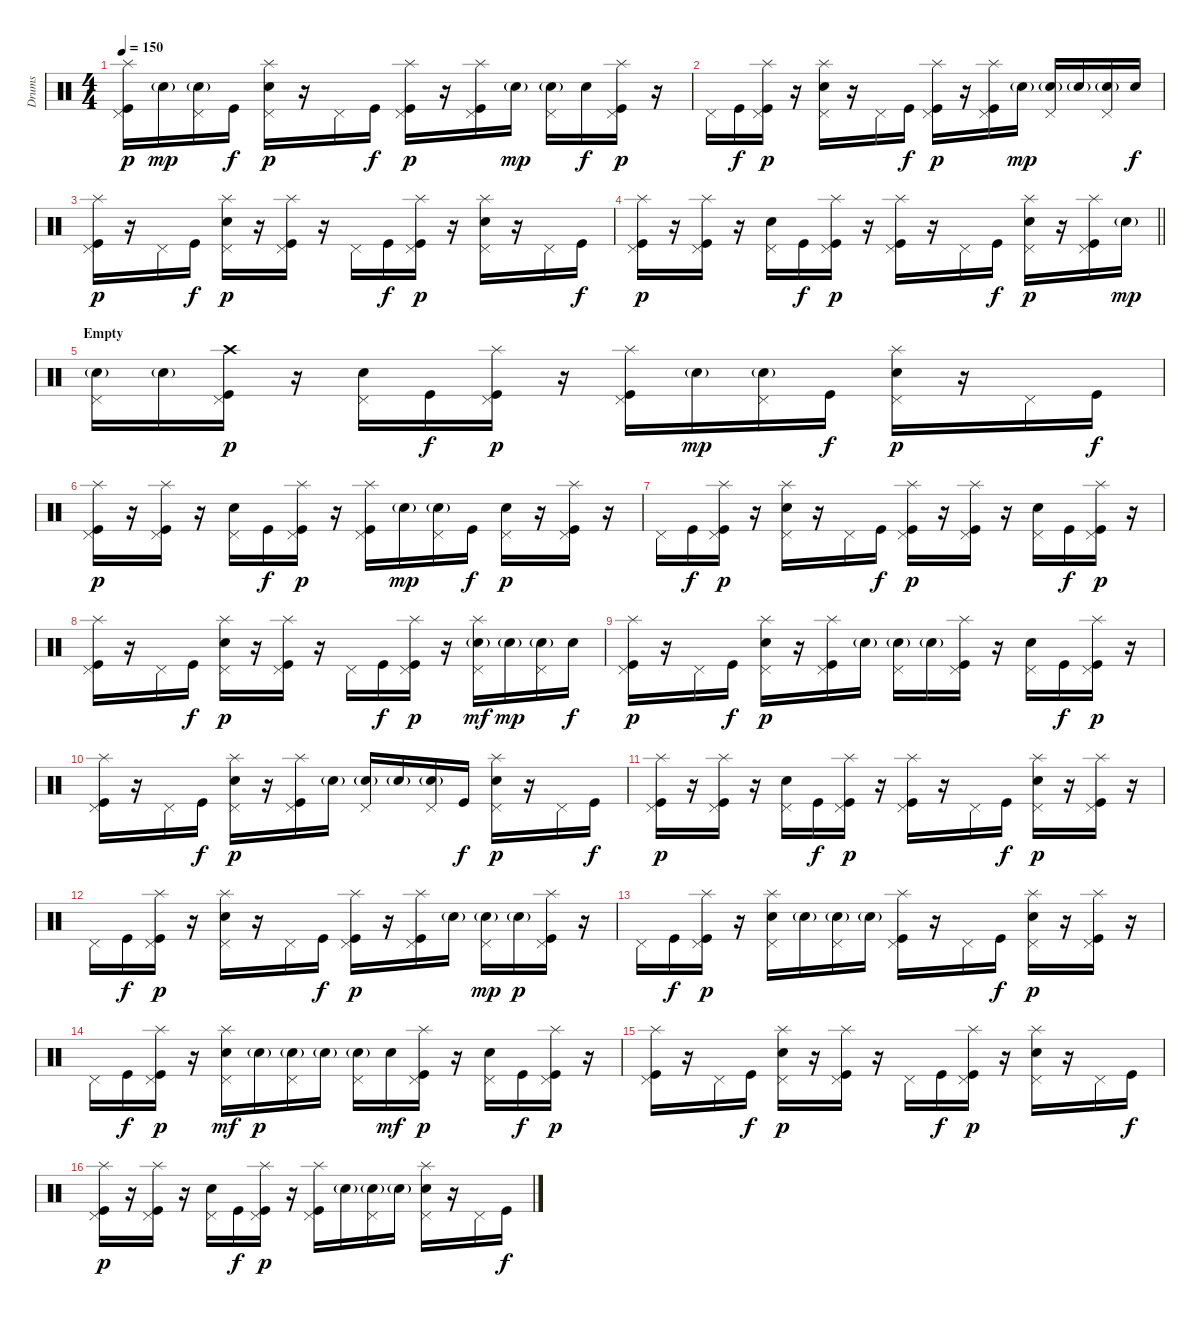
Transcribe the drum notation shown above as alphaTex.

\track ("Drums" "Drums") {instrument percussion}
\staff {score}
\articulation defaults
\ts (4 4)
\tempo 150
\clef neutral
\ks c
("Splash (hit)" "Pedal Hi-Hat (hit)" "Kick (hit)").16{dy p} "Electric Snare (hit)"{g}.16{dy mp} ("Pedal Hi-Hat (hit)" "Electric Snare (hit)"{g}).16 "Kick (hit)".16{dy f} ("Splash (hit)" "Pedal Hi-Hat (hit)" "Electric Snare (hit)").16{dy p} r.16 "Pedal Hi-Hat (hit)".16 "Kick (hit)".16{dy f} ("Splash (hit)" "Pedal Hi-Hat (hit)" "Kick (hit)").16{dy p} r.16 ("Splash (hit)" "Pedal Hi-Hat (hit)" "Kick (hit)").16 "Electric Snare (hit)"{g}.16{dy mp} ("Pedal Hi-Hat (hit)" "Electric Snare (hit)"{g}).16 "Electric Snare (hit)".16{dy f} ("Splash (hit)" "Pedal Hi-Hat (hit)" "Kick (hit)").16{dy p} r.16 |
"Pedal Hi-Hat (hit)".16 "Kick (hit)".16{dy f} ("Splash (hit)" "Pedal Hi-Hat (hit)" "Kick (hit)").16{dy p} r.16 ("Splash (hit)" "Pedal Hi-Hat (hit)" "Electric Snare (hit)").16 r.16 "Pedal Hi-Hat (hit)".16 "Kick (hit)".16{dy f} ("Splash (hit)" "Pedal Hi-Hat (hit)" "Kick (hit)").16{dy p} r.16 ("Splash (hit)" "Pedal Hi-Hat (hit)" "Kick (hit)").16 "Electric Snare (hit)"{g}.16{dy mp} ("Pedal Hi-Hat (hit)" "Electric Snare (hit)"{g}).16 "Electric Snare (hit)"{g}.16 ("Pedal Hi-Hat (hit)" "Electric Snare (hit)"{g}).16 "Electric Snare (hit)".16{dy f} |
("Splash (hit)" "Pedal Hi-Hat (hit)" "Kick (hit)").16{dy p} r.16 "Pedal Hi-Hat (hit)".16 "Kick (hit)".16{dy f} ("Splash (hit)" "Pedal Hi-Hat (hit)" "Electric Snare (hit)").16{dy p} r.16 ("Splash (hit)" "Pedal Hi-Hat (hit)" "Kick (hit)").16 r.16 "Pedal Hi-Hat (hit)".16 "Kick (hit)".16{dy f} ("Splash (hit)" "Pedal Hi-Hat (hit)" "Kick (hit)").16{dy p} r.16 ("Splash (hit)" "Pedal Hi-Hat (hit)" "Electric Snare (hit)").16 r.16 "Pedal Hi-Hat (hit)".16 "Kick (hit)".16{dy f} |
\barLineRight lightlight
("Splash (hit)" "Pedal Hi-Hat (hit)" "Kick (hit)").16{dy p} r.16 ("Splash (hit)" "Pedal Hi-Hat (hit)" "Kick (hit)").16 r.16 ("Pedal Hi-Hat (hit)" "Electric Snare (hit)").16 "Kick (hit)".16{dy f} ("Splash (hit)" "Pedal Hi-Hat (hit)" "Kick (hit)").16{dy p} r.16 ("Splash (hit)" "Pedal Hi-Hat (hit)" "Kick (hit)").16 r.16 "Pedal Hi-Hat (hit)".16 "Kick (hit)".16{dy f} ("Splash (hit)" "Pedal Hi-Hat (hit)" "Electric Snare (hit)").16{dy p} r.16 ("Splash (hit)" "Pedal Hi-Hat (hit)" "Kick (hit)").16 "Electric Snare (hit)"{g}.16{dy mp} |
\section ("" "Empty")
("Pedal Hi-Hat (hit)" "Electric Snare (hit)"{g}).16 "Electric Snare (hit)"{g}.16 ("Crash high (hit)" "Pedal Hi-Hat (hit)" "Kick (hit)").16{dy p} r.16 ("Pedal Hi-Hat (hit)" "Electric Snare (hit)").16 "Kick (hit)".16{dy f} ("Splash (hit)" "Pedal Hi-Hat (hit)" "Kick (hit)").16{dy p} r.16 ("Splash (hit)" "Pedal Hi-Hat (hit)" "Kick (hit)").16 "Electric Snare (hit)"{g}.16{dy mp} ("Pedal Hi-Hat (hit)" "Electric Snare (hit)"{g}).16 "Kick (hit)".16{dy f} ("Splash (hit)" "Pedal Hi-Hat (hit)" "Electric Snare (hit)").16{dy p} r.16 "Pedal Hi-Hat (hit)".16 "Kick (hit)".16{dy f} |
("Splash (hit)" "Pedal Hi-Hat (hit)" "Kick (hit)").16{dy p} r.16 ("Splash (hit)" "Pedal Hi-Hat (hit)" "Kick (hit)").16 r.16 ("Pedal Hi-Hat (hit)" "Electric Snare (hit)").16 "Kick (hit)".16{dy f} ("Splash (hit)" "Pedal Hi-Hat (hit)" "Kick (hit)").16{dy p} r.16 ("Splash (hit)" "Pedal Hi-Hat (hit)" "Kick (hit)").16 "Electric Snare (hit)"{g}.16{dy mp} ("Pedal Hi-Hat (hit)" "Electric Snare (hit)"{g}).16 "Kick (hit)".16{dy f} ("Pedal Hi-Hat (hit)" "Electric Snare (hit)").16{dy p} r.16 ("Splash (hit)" "Pedal Hi-Hat (hit)" "Kick (hit)").16 r.16 |
"Pedal Hi-Hat (hit)".16 "Kick (hit)".16{dy f} ("Splash (hit)" "Pedal Hi-Hat (hit)" "Kick (hit)").16{dy p} r.16 ("Splash (hit)" "Pedal Hi-Hat (hit)" "Electric Snare (hit)").16 r.16 "Pedal Hi-Hat (hit)".16 "Kick (hit)".16{dy f} ("Splash (hit)" "Pedal Hi-Hat (hit)" "Kick (hit)").16{dy p} r.16 ("Splash (hit)" "Pedal Hi-Hat (hit)" "Kick (hit)").16 r.16 ("Pedal Hi-Hat (hit)" "Electric Snare (hit)").16 "Kick (hit)".16{dy f} ("Splash (hit)" "Pedal Hi-Hat (hit)" "Kick (hit)").16{dy p} r.16 |
("Splash (hit)" "Pedal Hi-Hat (hit)" "Kick (hit)").16 r.16 "Pedal Hi-Hat (hit)".16 "Kick (hit)".16{dy f} ("Splash (hit)" "Pedal Hi-Hat (hit)" "Electric Snare (hit)").16{dy p} r.16 ("Splash (hit)" "Pedal Hi-Hat (hit)" "Kick (hit)").16 r.16 "Pedal Hi-Hat (hit)".16 "Kick (hit)".16{dy f} ("Splash (hit)" "Pedal Hi-Hat (hit)" "Kick (hit)").16{dy p} r.16 ("Splash (hit)" "Pedal Hi-Hat (hit)" "Electric Snare (hit)"{g}).16{dy mf} "Electric Snare (hit)"{g}.16{dy mp} ("Pedal Hi-Hat (hit)" "Electric Snare (hit)"{g}).16 "Electric Snare (hit)".16{dy f} |
("Splash (hit)" "Pedal Hi-Hat (hit)" "Kick (hit)").16{dy p} r.16 "Pedal Hi-Hat (hit)".16 "Kick (hit)".16{dy f} ("Splash (hit)" "Pedal Hi-Hat (hit)" "Electric Snare (hit)").16{dy p} r.16 ("Splash (hit)" "Pedal Hi-Hat (hit)" "Kick (hit)").16 "Electric Snare (hit)"{g}.16 ("Pedal Hi-Hat (hit)" "Electric Snare (hit)"{g}).16 "Electric Snare (hit)"{g}.16 ("Splash (hit)" "Pedal Hi-Hat (hit)" "Kick (hit)").16 r.16 ("Pedal Hi-Hat (hit)" "Electric Snare (hit)").16 "Kick (hit)".16{dy f} ("Splash (hit)" "Pedal Hi-Hat (hit)" "Kick (hit)").16{dy p} r.16 |
("Splash (hit)" "Pedal Hi-Hat (hit)" "Kick (hit)").16 r.16 "Pedal Hi-Hat (hit)".16 "Kick (hit)".16{dy f} ("Splash (hit)" "Pedal Hi-Hat (hit)" "Electric Snare (hit)").16{dy p} r.16 ("Splash (hit)" "Pedal Hi-Hat (hit)" "Kick (hit)").16 "Electric Snare (hit)"{g}.16 ("Pedal Hi-Hat (hit)" "Electric Snare (hit)"{g}).16 "Electric Snare (hit)"{g}.16 ("Pedal Hi-Hat (hit)" "Electric Snare (hit)"{g}).16 "Kick (hit)".16{dy f} ("Splash (hit)" "Pedal Hi-Hat (hit)" "Electric Snare (hit)").16{dy p} r.16 "Pedal Hi-Hat (hit)".16 "Kick (hit)".16{dy f} |
("Splash (hit)" "Pedal Hi-Hat (hit)" "Kick (hit)").16{dy p} r.16 ("Splash (hit)" "Pedal Hi-Hat (hit)" "Kick (hit)").16 r.16 ("Pedal Hi-Hat (hit)" "Electric Snare (hit)").16 "Kick (hit)".16{dy f} ("Splash (hit)" "Pedal Hi-Hat (hit)" "Kick (hit)").16{dy p} r.16 ("Splash (hit)" "Pedal Hi-Hat (hit)" "Kick (hit)").16 r.16 "Pedal Hi-Hat (hit)".16 "Kick (hit)".16{dy f} ("Splash (hit)" "Pedal Hi-Hat (hit)" "Electric Snare (hit)").16{dy p} r.16 ("Splash (hit)" "Pedal Hi-Hat (hit)" "Kick (hit)").16 r.16 |
"Pedal Hi-Hat (hit)".16 "Kick (hit)".16{dy f} ("Splash (hit)" "Pedal Hi-Hat (hit)" "Kick (hit)").16{dy p} r.16 ("Splash (hit)" "Pedal Hi-Hat (hit)" "Electric Snare (hit)").16 r.16 "Pedal Hi-Hat (hit)".16 "Kick (hit)".16{dy f} ("Splash (hit)" "Pedal Hi-Hat (hit)" "Kick (hit)").16{dy p} r.16 ("Splash (hit)" "Pedal Hi-Hat (hit)" "Kick (hit)").16 "Electric Snare (hit)"{g}.16 ("Pedal Hi-Hat (hit)" "Electric Snare (hit)"{g}).16{dy mp} "Electric Snare (hit)"{g}.16{dy p} ("Splash (hit)" "Pedal Hi-Hat (hit)" "Kick (hit)").16 r.16 |
"Pedal Hi-Hat (hit)".16 "Kick (hit)".16{dy f} ("Splash (hit)" "Pedal Hi-Hat (hit)" "Kick (hit)").16{dy p} r.16 ("Splash (hit)" "Pedal Hi-Hat (hit)" "Electric Snare (hit)").16 "Electric Snare (hit)"{g}.16 ("Pedal Hi-Hat (hit)" "Electric Snare (hit)"{g}).16 "Electric Snare (hit)"{g}.16 ("Splash (hit)" "Pedal Hi-Hat (hit)" "Kick (hit)").16 r.16 "Pedal Hi-Hat (hit)".16 "Kick (hit)".16{dy f} ("Splash (hit)" "Pedal Hi-Hat (hit)" "Electric Snare (hit)").16{dy p} r.16 ("Splash (hit)" "Pedal Hi-Hat (hit)" "Kick (hit)").16 r.16 |
"Pedal Hi-Hat (hit)".16 "Kick (hit)".16{dy f} ("Splash (hit)" "Pedal Hi-Hat (hit)" "Kick (hit)").16{dy p} r.16 ("Splash (hit)" "Pedal Hi-Hat (hit)" "Electric Snare (hit)").16{dy mf} "Electric Snare (hit)"{g}.16{dy p} ("Pedal Hi-Hat (hit)" "Electric Snare (hit)"{g}).16 "Electric Snare (hit)"{g}.16 ("Pedal Hi-Hat (hit)" "Electric Snare (hit)"{g}).16 "Electric Snare (hit)".16{dy mf} ("Splash (hit)" "Pedal Hi-Hat (hit)" "Kick (hit)").16{dy p} r.16 ("Pedal Hi-Hat (hit)" "Electric Snare (hit)").16 "Kick (hit)".16{dy f} ("Splash (hit)" "Pedal Hi-Hat (hit)" "Kick (hit)").16{dy p} r.16 |
("Splash (hit)" "Pedal Hi-Hat (hit)" "Kick (hit)").16 r.16 "Pedal Hi-Hat (hit)".16 "Kick (hit)".16{dy f} ("Splash (hit)" "Pedal Hi-Hat (hit)" "Electric Snare (hit)").16{dy p} r.16 ("Splash (hit)" "Pedal Hi-Hat (hit)" "Kick (hit)").16 r.16 "Pedal Hi-Hat (hit)".16 "Kick (hit)".16{dy f} ("Splash (hit)" "Pedal Hi-Hat (hit)" "Kick (hit)").16{dy p} r.16 ("Splash (hit)" "Pedal Hi-Hat (hit)" "Electric Snare (hit)").16 r.16 "Pedal Hi-Hat (hit)".16 "Kick (hit)".16{dy f} |
("Splash (hit)" "Pedal Hi-Hat (hit)" "Kick (hit)").16{dy p} r.16 ("Splash (hit)" "Pedal Hi-Hat (hit)" "Kick (hit)").16 r.16 ("Pedal Hi-Hat (hit)" "Electric Snare (hit)").16 "Kick (hit)".16{dy f} ("Splash (hit)" "Pedal Hi-Hat (hit)" "Kick (hit)").16{dy p} r.16 ("Splash (hit)" "Pedal Hi-Hat (hit)" "Kick (hit)").16 "Electric Snare (hit)"{g}.16 ("Pedal Hi-Hat (hit)" "Electric Snare (hit)"{g}).16 "Electric Snare (hit)"{g}.16 ("Splash (hit)" "Pedal Hi-Hat (hit)" "Electric Snare (hit)").16 r.16 "Pedal Hi-Hat (hit)".16 "Kick (hit)".16{dy f}
